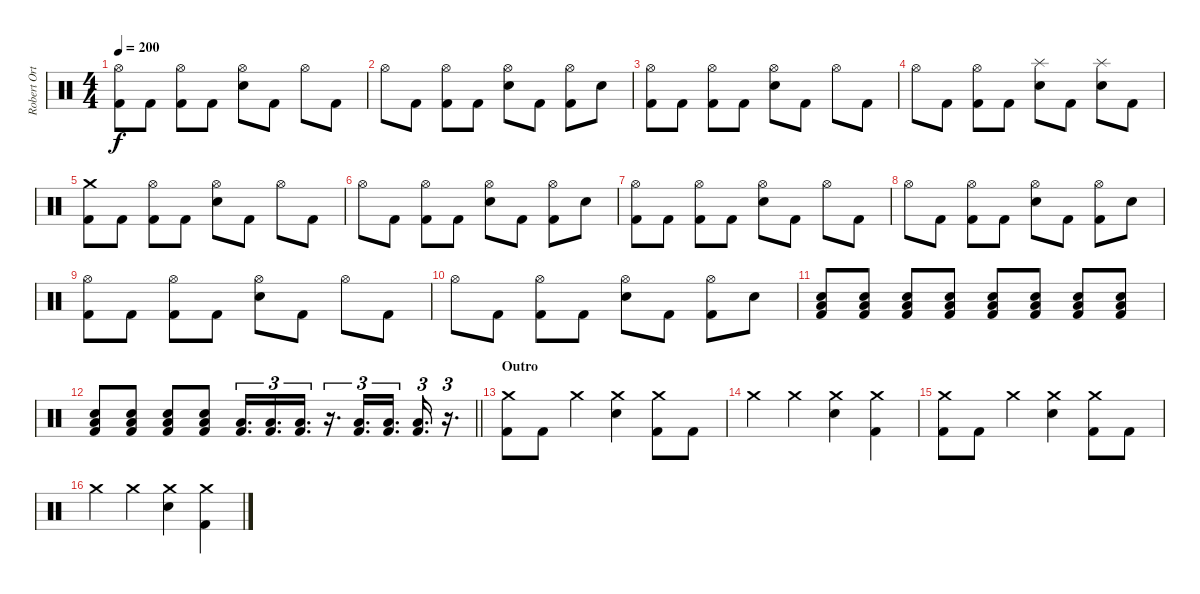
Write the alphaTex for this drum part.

\track ("Robert Ortiz - Drums" "Robert Ort") {instrument percussion}
\staff {score}
\articulation defaults
\ts (4 4)
\tempo 200
\clef neutral
\ks c
("Hi-Hat (open)" "Kick (hit) 2").8{dy f} "Kick (hit) 2".8 ("Hi-Hat (open)" "Kick (hit) 2").8 "Kick (hit) 2".8 ("Hi-Hat (open)" "Electric Snare (hit)").8 "Kick (hit) 2".8 "Hi-Hat (open)".8 "Kick (hit) 2".8 |
"Hi-Hat (open)".8 "Kick (hit) 2".8 ("Hi-Hat (open)" "Kick (hit) 2").8 "Kick (hit) 2".8 ("Hi-Hat (open)" "Electric Snare (hit)").8 "Kick (hit) 2".8 ("Hi-Hat (open)" "Kick (hit) 2").8 "Electric Snare (hit)".8 |
("Hi-Hat (open)" "Kick (hit) 2").8 "Kick (hit) 2".8 ("Hi-Hat (open)" "Kick (hit) 2").8 "Kick (hit) 2".8 ("Hi-Hat (open)" "Electric Snare (hit)").8 "Kick (hit) 2".8 "Hi-Hat (open)".8 "Kick (hit) 2".8 |
"Hi-Hat (open)".8 "Kick (hit) 2".8 ("Hi-Hat (open)" "Kick (hit) 2").8 "Kick (hit) 2".8 ("Splash (hit)" "Electric Snare (hit)").8 "Kick (hit) 2".8 ("Splash (hit)" "Electric Snare (hit)").8 "Kick (hit) 2".8 |
("Crash medium (hit)" "Kick (hit) 2").8 "Kick (hit) 2".8 ("Hi-Hat (open)" "Kick (hit) 2").8 "Kick (hit) 2".8 ("Hi-Hat (open)" "Electric Snare (hit)").8 "Kick (hit) 2".8 "Hi-Hat (open)".8 "Kick (hit) 2".8 |
"Hi-Hat (open)".8 "Kick (hit) 2".8 ("Hi-Hat (open)" "Kick (hit) 2").8 "Kick (hit) 2".8 ("Hi-Hat (open)" "Electric Snare (hit)").8 "Kick (hit) 2".8 ("Hi-Hat (open)" "Kick (hit) 2").8 "Electric Snare (hit)".8 |
("Hi-Hat (open)" "Kick (hit) 2").8 "Kick (hit) 2".8 ("Hi-Hat (open)" "Kick (hit) 2").8 "Kick (hit) 2".8 ("Hi-Hat (open)" "Electric Snare (hit)").8 "Kick (hit) 2".8 "Hi-Hat (open)".8 "Kick (hit) 2".8 |
"Hi-Hat (open)".8 "Kick (hit) 2".8 ("Hi-Hat (open)" "Kick (hit) 2").8 "Kick (hit) 2".8 ("Hi-Hat (open)" "Electric Snare (hit)").8 "Kick (hit) 2".8 ("Hi-Hat (open)" "Kick (hit) 2").8 "Electric Snare (hit)".8 |
("Hi-Hat (open)" "Kick (hit) 2").8 "Kick (hit) 2".8 ("Hi-Hat (open)" "Kick (hit) 2").8 "Kick (hit) 2".8 ("Hi-Hat (open)" "Electric Snare (hit)").8 "Kick (hit) 2".8 "Hi-Hat (open)".8 "Kick (hit) 2".8 |
"Hi-Hat (open)".8 "Kick (hit) 2".8 ("Hi-Hat (open)" "Kick (hit) 2").8 "Kick (hit) 2".8 ("Hi-Hat (open)" "Electric Snare (hit)").8 "Kick (hit) 2".8 ("Hi-Hat (open)" "Kick (hit) 2").8 "Electric Snare (hit)".8 |
("Electric Snare (hit)" "Low Floor Tom (hit)" "Kick (hit) 2").8{volume 7} ("Electric Snare (hit)" "Low Floor Tom (hit)" "Kick (hit) 2").8{volume 11} ("Electric Snare (hit)" "Low Floor Tom (hit)" "Kick (hit) 2").8 ("Electric Snare (hit)" "Low Floor Tom (hit)" "Kick (hit) 2").8 ("Electric Snare (hit)" "Low Floor Tom (hit)" "Kick (hit) 2").8 ("Electric Snare (hit)" "Low Floor Tom (hit)" "Kick (hit) 2").8 ("Electric Snare (hit)" "Low Floor Tom (hit)" "Kick (hit) 2").8 ("Electric Snare (hit)" "Low Floor Tom (hit)" "Kick (hit) 2").8 |
\barLineRight lightlight
("Electric Snare (hit)" "Low Floor Tom (hit)" "Kick (hit) 2").8 ("Electric Snare (hit)" "Low Floor Tom (hit)" "Kick (hit) 2").8 ("Electric Snare (hit)" "Low Floor Tom (hit)" "Kick (hit) 2").8 ("Electric Snare (hit)" "Low Floor Tom (hit)" "Kick (hit) 2").8 ("Low Floor Tom (hit)" "Kick (hit) 2").16{d tu (3 2)} ("Low Floor Tom (hit)" "Kick (hit) 2").16{d tu (3 2)} ("Low Floor Tom (hit)" "Kick (hit) 2").16{d tu (3 2)} r.16{d tu (3 2)} ("Low Floor Tom (hit)" "Kick (hit) 2").16{d tu (3 2)} ("Low Floor Tom (hit)" "Kick (hit) 2").16{d tu (3 2)} ("Low Floor Tom (hit)" "Kick (hit) 2").16{d tu (3 2)} r.16{d tu (3 2)} |
\section ("" "Outro")
("Crash medium (hit)" "Kick (hit) 2").8 "Kick (hit) 2".8 "Crash medium (hit)".4 ("Crash medium (hit)" "Electric Snare (hit)").4 ("Crash medium (hit)" "Kick (hit) 2").8 "Kick (hit) 2".8 |
"Crash medium (hit)".4 "Crash medium (hit)".4 ("Crash medium (hit)" "Electric Snare (hit)").4 ("Crash medium (hit)" "Kick (hit) 2").4 |
("Crash medium (hit)" "Kick (hit) 2").8 "Kick (hit) 2".8 "Crash medium (hit)".4 ("Crash medium (hit)" "Electric Snare (hit)").4 ("Crash medium (hit)" "Kick (hit) 2").8 "Kick (hit) 2".8 |
"Crash medium (hit)".4 "Crash medium (hit)".4 ("Crash medium (hit)" "Electric Snare (hit)").4 ("Crash medium (hit)" "Kick (hit) 2").4
